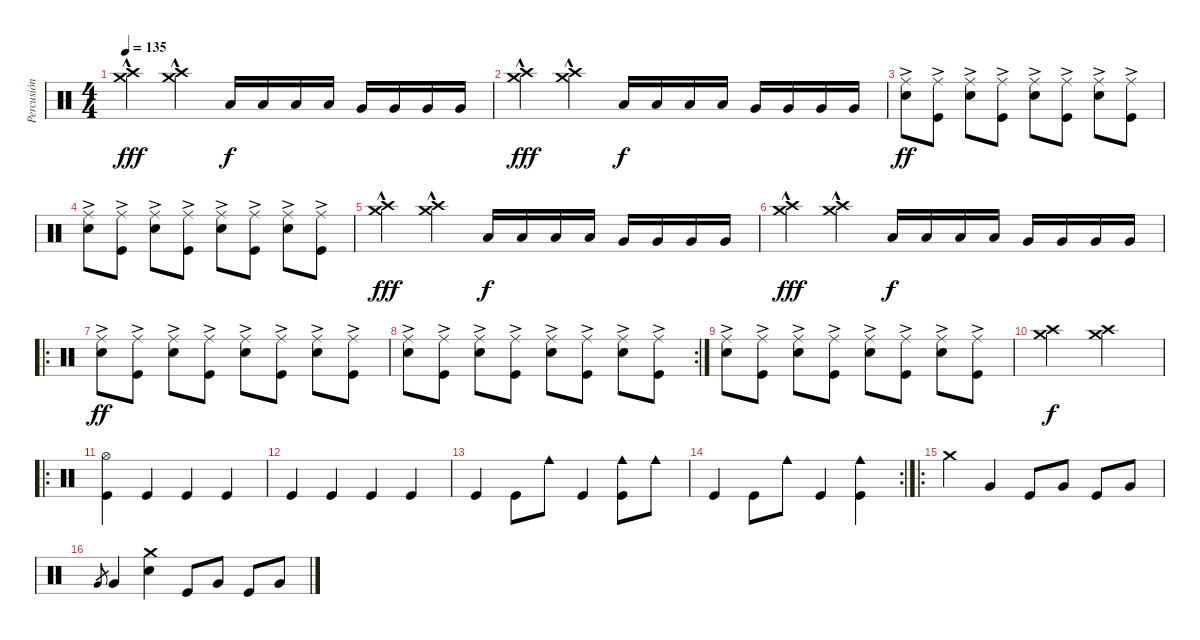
\track ("Percusión" "Percusión") {instrument percussion}
\staff {score}
\articulation defaults
\ts (4 4)
\tempo 135
\clef neutral
\ks c
("Crash high (hit)" "Crash medium (hit)"{hac}).4{dy fff} ("Crash high (hit)" "Crash medium (hit)"{hac}).4 "Low Floor Tom (hit)".16{dy f} "Low Floor Tom (hit)".16 "Low Floor Tom (hit)".16 "Low Floor Tom (hit)".16 "Very Low Tom (hit)".16 "Very Low Tom (hit)".16 "Very Low Tom (hit)".16 "Very Low Tom (hit)".16 |
("Crash high (hit)" "Crash medium (hit)"{hac}).4{dy fff} ("Crash high (hit)" "Crash medium (hit)"{hac}).4 "Low Floor Tom (hit)".16{dy f} "Low Floor Tom (hit)".16 "Low Floor Tom (hit)".16 "Low Floor Tom (hit)".16 "Very Low Tom (hit)".16 "Very Low Tom (hit)".16 "Very Low Tom (hit)".16 "Very Low Tom (hit)".16 |
("Ride (middle)"{ac} "Electric Snare (hit)").8{dy ff} ("Ride (middle)"{ac} "Kick (hit)").8 ("Ride (middle)"{ac} "Electric Snare (hit)").8 ("Ride (middle)"{ac} "Kick (hit)").8 ("Ride (middle)"{ac} "Electric Snare (hit)").8 ("Ride (middle)"{ac} "Kick (hit)").8 ("Ride (middle)"{ac} "Electric Snare (hit)").8 ("Ride (middle)"{ac} "Kick (hit)").8 |
("Ride (middle)"{ac} "Electric Snare (hit)").8 ("Ride (middle)"{ac} "Kick (hit)").8 ("Ride (middle)"{ac} "Electric Snare (hit)").8 ("Ride (middle)"{ac} "Kick (hit)").8 ("Ride (middle)"{ac} "Electric Snare (hit)").8 ("Ride (middle)"{ac} "Kick (hit)").8 ("Ride (middle)"{ac} "Electric Snare (hit)").8 ("Ride (middle)"{ac} "Kick (hit)").8 |
("Crash high (hit)" "Crash medium (hit)"{hac}).4{dy fff} ("Crash high (hit)" "Crash medium (hit)"{hac}).4 "Low Floor Tom (hit)".16{dy f} "Low Floor Tom (hit)".16 "Low Floor Tom (hit)".16 "Low Floor Tom (hit)".16 "Very Low Tom (hit)".16 "Very Low Tom (hit)".16 "Very Low Tom (hit)".16 "Very Low Tom (hit)".16 |
("Crash high (hit)" "Crash medium (hit)"{hac}).4{dy fff} ("Crash high (hit)" "Crash medium (hit)"{hac}).4 "Low Floor Tom (hit)".16{dy f} "Low Floor Tom (hit)".16 "Low Floor Tom (hit)".16 "Low Floor Tom (hit)".16 "Very Low Tom (hit)".16 "Very Low Tom (hit)".16 "Very Low Tom (hit)".16 "Very Low Tom (hit)".16 |
\ro
("Ride (middle)"{ac} "Electric Snare (hit)").8{dy ff} ("Ride (middle)"{ac} "Kick (hit)").8 ("Ride (middle)"{ac} "Electric Snare (hit)").8 ("Ride (middle)"{ac} "Kick (hit)").8 ("Ride (middle)"{ac} "Electric Snare (hit)").8 ("Ride (middle)"{ac} "Kick (hit)").8 ("Ride (middle)"{ac} "Electric Snare (hit)").8 ("Ride (middle)"{ac} "Kick (hit)").8 |
\rc 2
("Ride (middle)"{ac} "Electric Snare (hit)").8 ("Ride (middle)"{ac} "Kick (hit)").8 ("Ride (middle)"{ac} "Electric Snare (hit)").8 ("Ride (middle)"{ac} "Kick (hit)").8 ("Ride (middle)"{ac} "Electric Snare (hit)").8 ("Ride (middle)"{ac} "Kick (hit)").8 ("Ride (middle)"{ac} "Electric Snare (hit)").8 ("Ride (middle)"{ac} "Kick (hit)").8 |
("Ride (middle)"{ac} "Electric Snare (hit)").8 ("Ride (middle)"{ac} "Kick (hit)").8 ("Ride (middle)"{ac} "Electric Snare (hit)").8 ("Ride (middle)"{ac} "Kick (hit)").8 ("Ride (middle)"{ac} "Electric Snare (hit)").8 ("Ride (middle)"{ac} "Kick (hit)").8 ("Ride (middle)"{ac} "Electric Snare (hit)").8 ("Ride (middle)"{ac} "Kick (hit)").8 |
("Crash high (hit)" "Crash medium (hit)").2{dy f} ("Crash high (hit)" "Crash medium (hit)").2 |
\ro
("Hi-Hat (open)" "Kick (hit)").4 "Kick (hit)".4 "Kick (hit)".4 "Kick (hit)".4 |
"Kick (hit)".4 "Kick (hit)".4 "Kick (hit)".4 "Kick (hit)".4 |
"Kick (hit)".4 "Kick (hit)".8 "Cowbell medium (hit)".8 "Kick (hit)".4 ("Cowbell medium (hit)" "Kick (hit)").8 "Cowbell medium (hit)".8 |
\rc 2 "Kick (hit)".4 "Kick (hit)".8 "Cowbell medium (hit)".8 "Kick (hit)".4
("Cowbell medium (hit)" "Kick (hit)").4 |
\ro "Crash medium (hit)".4 "Very Low Tom (hit)".4 "Kick (hit)".8 "Very Low Tom (hit)".8 "Kick (hit)".8 "Very Low Tom (hit)".8
|
"Very Low Tom (hit)".8{gr} "Very Low Tom (hit)".4 ("Crash medium (hit)" "Electric Snare (hit)").4 "Kick (hit)".8 "Very Low Tom (hit)".8 "Kick (hit)".8 "Very Low Tom (hit)".8
